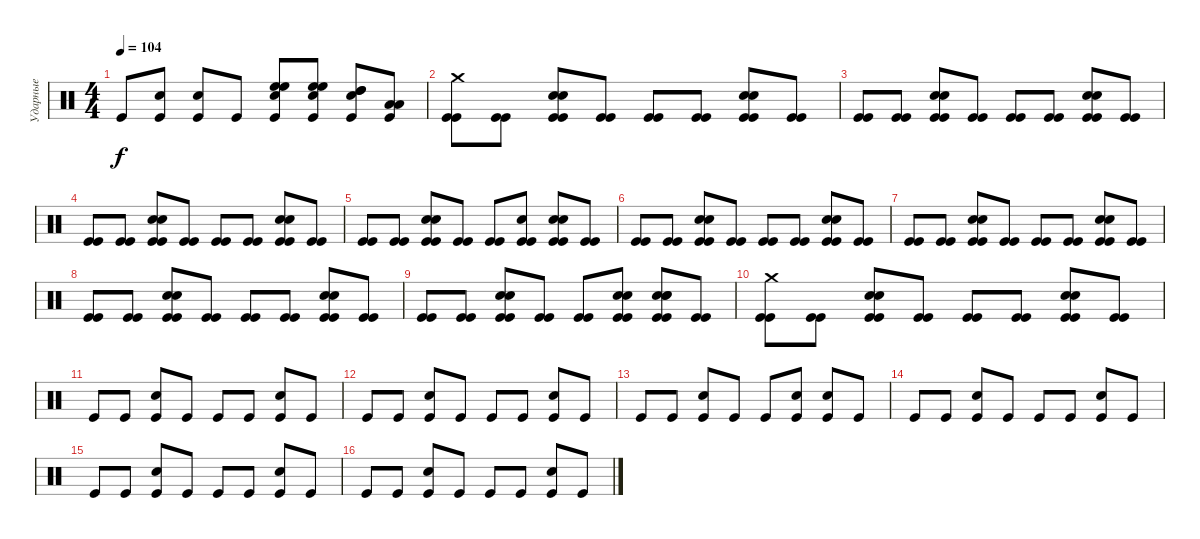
\track ("Ударные" "Ударные") {instrument percussion}
\staff {score}
\articulation defaults
\ts (4 4)
\tempo 104
\clef neutral
\ks c "Kick (hit)".8{dy f}
("Snare (hit) 2" "Kick (hit)").8 ("Kick (hit)" "Snare (hit) 2").8 "Kick (hit)".8 ("Snare (hit) 2" "High Floor Tom (hit)" "Kick (hit)" "High Floor Tom (hit)").8 ("High Floor Tom (hit)" "Snare (hit) 2" "Kick (hit)" "High Floor Tom (hit)").8 ("High Tom (hit)" "Snare (hit) 2" "Kick (hit)" "High Tom (hit)").8 ("Low Tom (hit)" "Kick (hit)" "Low Tom (hit)").8 |
("Crash medium (hit)" "Kick (hit)" "Kick (hit)").8 ("Kick (hit)" "Kick (hit)").8 ("Snare (hit) 2" "Kick (hit)" "Snare (hit) 2" "Kick (hit)").8 ("Kick (hit)" "Kick (hit)").8 ("Kick (hit)" "Kick (hit)").8 ("Kick (hit)" "Kick (hit)").8 ("Snare (hit) 2" "Kick (hit)" "Snare (hit) 2" "Kick (hit)").8 ("Kick (hit)" "Kick (hit)").8 |
("Kick (hit)" "Kick (hit)").8 ("Kick (hit)" "Kick (hit)").8 ("Snare (hit) 2" "Kick (hit)" "Snare (hit) 2" "Kick (hit)").8 ("Kick (hit)" "Kick (hit)").8 ("Kick (hit)" "Kick (hit)").8 ("Kick (hit)" "Kick (hit)").8 ("Snare (hit) 2" "Kick (hit)" "Snare (hit) 2" "Kick (hit)").8 ("Kick (hit)" "Kick (hit)").8 |
("Kick (hit)" "Kick (hit)").8 ("Kick (hit)" "Kick (hit)").8 ("Snare (hit) 2" "Kick (hit)" "Snare (hit) 2" "Kick (hit)").8 ("Kick (hit)" "Kick (hit)").8 ("Kick (hit)" "Kick (hit)").8 ("Kick (hit)" "Kick (hit)").8 ("Snare (hit) 2" "Kick (hit)" "Snare (hit) 2" "Kick (hit)").8 ("Kick (hit)" "Kick (hit)").8 |
("Kick (hit)" "Kick (hit)").8 ("Kick (hit)" "Kick (hit)").8 ("Snare (hit) 2" "Kick (hit)" "Snare (hit) 2" "Kick (hit)").8 ("Kick (hit)" "Kick (hit)").8 ("Kick (hit)" "Kick (hit)").8 ("Snare (hit) 2" "Kick (hit)" "Kick (hit)").8 ("Snare (hit) 2" "Kick (hit)" "Snare (hit) 2" "Kick (hit)").8 ("Kick (hit)" "Kick (hit)").8 |
("Kick (hit)" "Kick (hit)").8 ("Kick (hit)" "Kick (hit)").8 ("Snare (hit) 2" "Kick (hit)" "Snare (hit) 2" "Kick (hit)").8 ("Kick (hit)" "Kick (hit)").8 ("Kick (hit)" "Kick (hit)").8 ("Kick (hit)" "Kick (hit)").8 ("Snare (hit) 2" "Kick (hit)" "Snare (hit) 2" "Kick (hit)").8 ("Kick (hit)" "Kick (hit)").8 |
("Kick (hit)" "Kick (hit)").8 ("Kick (hit)" "Kick (hit)").8 ("Snare (hit) 2" "Kick (hit)" "Snare (hit) 2" "Kick (hit)").8 ("Kick (hit)" "Kick (hit)").8 ("Kick (hit)" "Kick (hit)").8 ("Kick (hit)" "Kick (hit)").8 ("Snare (hit) 2" "Kick (hit)" "Snare (hit) 2" "Kick (hit)").8 ("Kick (hit)" "Kick (hit)").8 |
("Kick (hit)" "Kick (hit)").8 ("Kick (hit)" "Kick (hit)").8 ("Snare (hit) 2" "Kick (hit)" "Snare (hit) 2" "Kick (hit)").8 ("Kick (hit)" "Kick (hit)").8 ("Kick (hit)" "Kick (hit)").8 ("Kick (hit)" "Kick (hit)").8 ("Snare (hit) 2" "Kick (hit)" "Snare (hit) 2" "Kick (hit)").8 ("Kick (hit)" "Kick (hit)").8 |
("Kick (hit)" "Kick (hit)").8 ("Kick (hit)" "Kick (hit)").8 ("Snare (hit) 2" "Kick (hit)" "Snare (hit) 2" "Kick (hit)").8 ("Kick (hit)" "Kick (hit)").8 ("Kick (hit)" "Kick (hit)").8 ("Snare (hit) 2" "Kick (hit)" "Kick (hit)" "Snare (hit) 2").8 ("Kick (hit)" "Snare (hit) 2" "Snare (hit) 2" "Kick (hit)" "Snare (hit) 2").8 ("Kick (hit)" "Kick (hit)").8 |
("Crash medium (hit)" "Kick (hit)" "Kick (hit)").8 ("Kick (hit)" "Kick (hit)").8 ("Snare (hit) 2" "Kick (hit)" "Snare (hit) 2" "Kick (hit)").8 ("Kick (hit)" "Kick (hit)").8 ("Kick (hit)" "Kick (hit)").8 ("Kick (hit)" "Kick (hit)").8 ("Snare (hit) 2" "Kick (hit)" "Snare (hit) 2" "Kick (hit)").8 ("Kick (hit)" "Kick (hit)").8 |
"Kick (hit)".8 "Kick (hit)".8 ("Snare (hit) 2" "Kick (hit)").8 "Kick (hit)".8 "Kick (hit)".8 "Kick (hit)".8 ("Snare (hit) 2" "Kick (hit)").8 "Kick (hit)".8 |
"Kick (hit)".8 "Kick (hit)".8 ("Snare (hit) 2" "Kick (hit)").8 "Kick (hit)".8 "Kick (hit)".8 "Kick (hit)".8 ("Snare (hit) 2" "Kick (hit)").8 "Kick (hit)".8 |
"Kick (hit)".8 "Kick (hit)".8 ("Snare (hit) 2" "Kick (hit)").8 "Kick (hit)".8 "Kick (hit)".8 ("Snare (hit) 2" "Kick (hit)").8 ("Snare (hit) 2" "Kick (hit)").8 "Kick (hit)".8 |
"Kick (hit)".8 "Kick (hit)".8 ("Snare (hit) 2" "Kick (hit)").8 "Kick (hit)".8 "Kick (hit)".8 "Kick (hit)".8 ("Snare (hit) 2" "Kick (hit)").8 "Kick (hit)".8 |
"Kick (hit)".8 "Kick (hit)".8 ("Snare (hit) 2" "Kick (hit)").8 "Kick (hit)".8 "Kick (hit)".8 "Kick (hit)".8 ("Snare (hit) 2" "Kick (hit)").8 "Kick (hit)".8 |
"Kick (hit)".8 "Kick (hit)".8 ("Snare (hit) 2" "Kick (hit)").8 "Kick (hit)".8 "Kick (hit)".8 "Kick (hit)".8 ("Snare (hit) 2" "Kick (hit)").8 "Kick (hit)".8
